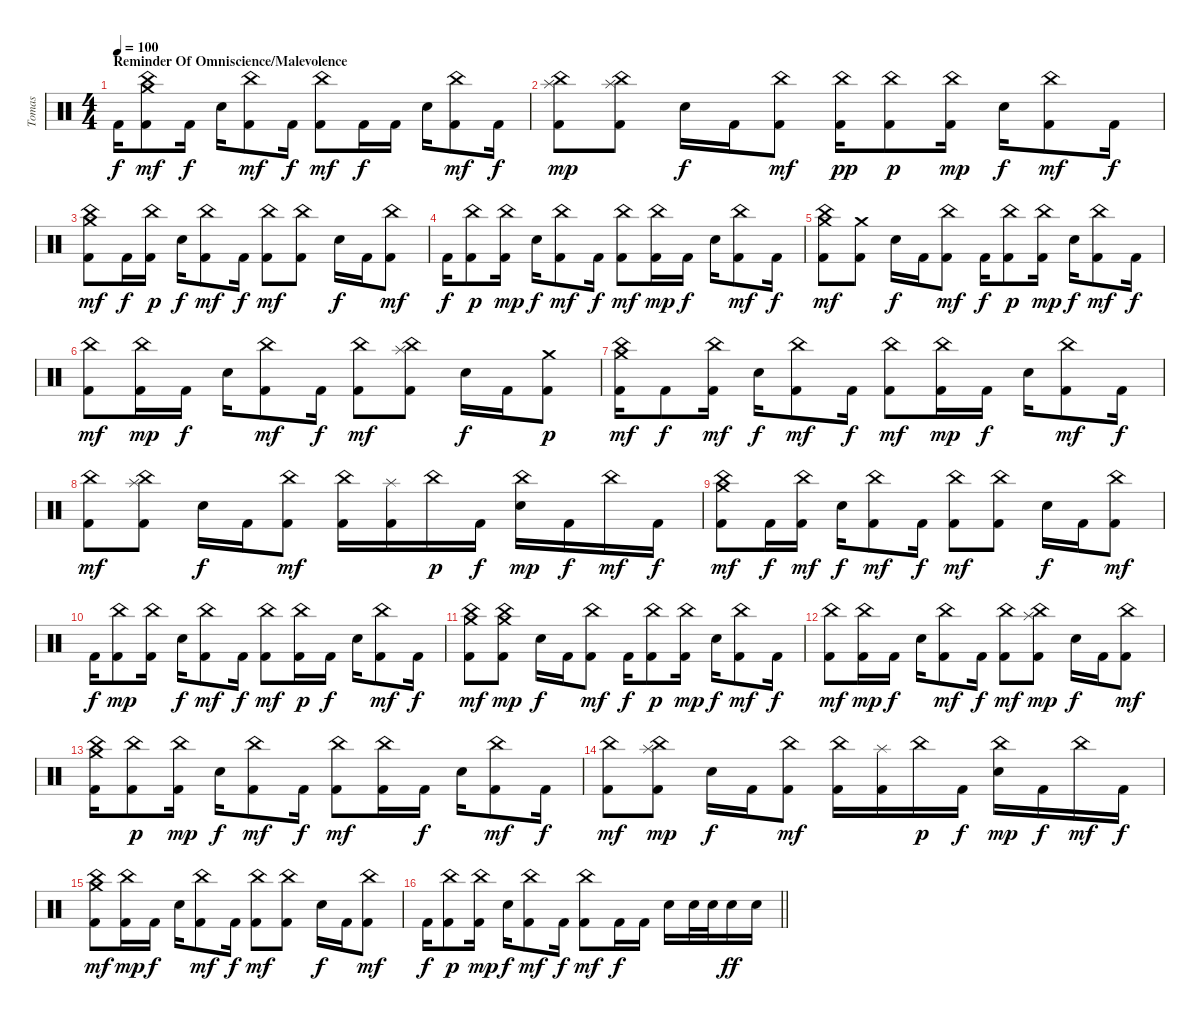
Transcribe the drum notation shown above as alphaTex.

\track ("Tomas" "Tomas") {instrument percussion}
\staff {score}
\articulation defaults
\ts (4 4)
\section ("" "Reminder Of Omniscience/Malevolence")
\tempo 100
\clef neutral
\ks c "Kick (hit) 2".16{dy f}
("China (hit)" "Crash medium (hit)" "Kick (hit) 2").8{dy mf} "Kick (hit) 2".16{dy f} "Electric Snare (hit)".16 ("China (hit)" "Kick (hit) 2").8{dy mf} "Kick (hit) 2".16{dy f} ("China (hit)" "Kick (hit) 2").8{dy mf} "Kick (hit) 2".16{dy f} "Kick (hit) 2".16 "Electric Snare (hit)".16 ("China (hit)" "Kick (hit) 2").8{dy mf} "Kick (hit) 2".16{dy f} |
("China (hit)" "Splash (hit)" "Kick (hit) 2").8{dy mp} ("China (hit)" "Splash (hit)" "Kick (hit) 2").8 "Electric Snare (hit)".16{dy f} "Kick (hit) 2".16 ("China (hit)" "Kick (hit) 2").8{dy mf} ("China (hit)" "Kick (hit) 2").16{dy pp} ("China (hit)" "Kick (hit) 2").8{dy p} ("China (hit)" "Kick (hit) 2").16{dy mp} "Electric Snare (hit)".16{dy f} ("China (hit)" "Kick (hit) 2").8{dy mf} "Kick (hit) 2".16{dy f} |
("China (hit)" "Crash medium (hit)" "Kick (hit) 2").8{dy mf} "Kick (hit) 2".16{dy f} ("China (hit)" "Kick (hit) 2").16{dy p} "Electric Snare (hit)".16{dy f} ("China (hit)" "Kick (hit) 2").8{dy mf} "Kick (hit) 2".16{dy f} ("China (hit)" "Kick (hit) 2").8{dy mf} ("China (hit)" "Kick (hit) 2").8 "Electric Snare (hit)".16{dy f} "Kick (hit) 2".16 ("China (hit)" "Kick (hit) 2").8{dy mf} |
"Kick (hit) 2".16{dy f} ("China (hit)" "Kick (hit) 2").8{dy p} ("China (hit)" "Kick (hit) 2").16{dy mp} "Electric Snare (hit)".16{dy f} ("China (hit)" "Kick (hit) 2").8{dy mf} "Kick (hit) 2".16{dy f} ("China (hit)" "Kick (hit) 2").8{dy mf} ("China (hit)" "Kick (hit) 2").16{dy mp} "Kick (hit) 2".16{dy f} "Electric Snare (hit)".16 ("China (hit)" "Kick (hit) 2").8{dy mf} "Kick (hit) 2".16{dy f} |
("China (hit)" "Crash medium (hit)" "Kick (hit) 2").8{dy mf} ("Crash medium (hit)" "Kick (hit) 2").8 "Electric Snare (hit)".16{dy f} "Kick (hit) 2".16 ("China (hit)" "Kick (hit) 2").8{dy mf} "Kick (hit) 2".16{dy f} ("China (hit)" "Kick (hit) 2").8{dy p} ("China (hit)" "Kick (hit) 2").16{dy mp} "Electric Snare (hit)".16{dy f} ("China (hit)" "Kick (hit) 2").8{dy mf} "Kick (hit) 2".16{dy f} |
("China (hit)" "Kick (hit) 2").8{dy mf} ("China (hit)" "Kick (hit) 2").16{dy mp} "Kick (hit) 2".16{dy f} "Electric Snare (hit)".16 ("China (hit)" "Kick (hit) 2").8{dy mf} "Kick (hit) 2".16{dy f} ("China (hit)" "Kick (hit) 2").8{dy mf} ("China (hit)" "Splash (hit)" "Kick (hit) 2").8 "Electric Snare (hit)".16{dy f} "Kick (hit) 2".16 ("Crash medium (hit)" "Kick (hit) 2").8{dy p} |
("China (hit)" "Crash medium (hit)" "Kick (hit) 2").16{dy mf} "Kick (hit) 2".8{dy f} ("China (hit)" "Kick (hit) 2").16{dy mf} "Electric Snare (hit)".16{dy f} ("China (hit)" "Kick (hit) 2").8{dy mf} "Kick (hit) 2".16{dy f} ("China (hit)" "Kick (hit) 2").8{dy mf} ("China (hit)" "Kick (hit) 2").16{dy mp} "Kick (hit) 2".16{dy f} "Electric Snare (hit)".16 ("China (hit)" "Kick (hit) 2").8{dy mf} "Kick (hit) 2".16{dy f} |
("China (hit)" "Kick (hit) 2").8{dy mf} ("China (hit)" "Splash (hit)" "Kick (hit) 2").8 "Electric Snare (hit)".16{dy f} "Kick (hit) 2".16 ("China (hit)" "Kick (hit) 2").8{dy mf} ("China (hit)" "Kick (hit) 2").16 ("Splash (hit)" "Kick (hit) 2").16 "China (hit)".16{dy p} "Kick (hit) 2".16{dy f} ("China (hit)" "Electric Snare (hit)").16{dy mp} "Kick (hit) 2".16{dy f} "China (hit)".16{dy mf} "Kick (hit) 2".16{dy f} |
("China (hit)" "Crash medium (hit)" "Kick (hit) 2").8{dy mf} "Kick (hit) 2".16{dy f} ("China (hit)" "Kick (hit) 2").16{dy mf} "Electric Snare (hit)".16{dy f} ("China (hit)" "Kick (hit) 2").8{dy mf} "Kick (hit) 2".16{dy f} ("China (hit)" "Kick (hit) 2").8{dy mf} ("China (hit)" "Kick (hit) 2").8 "Electric Snare (hit)".16{dy f} "Kick (hit) 2".16 ("China (hit)" "Kick (hit) 2").8{dy mf} |
"Kick (hit) 2".16{dy f} ("China (hit)" "Kick (hit) 2").8{dy mp} ("China (hit)" "Kick (hit) 2").16 "Electric Snare (hit)".16{dy f} ("China (hit)" "Kick (hit) 2").8{dy mf} "Kick (hit) 2".16{dy f} ("China (hit)" "Kick (hit) 2").8{dy mf} ("China (hit)" "Kick (hit) 2").16{dy p} "Kick (hit) 2".16{dy f} "Electric Snare (hit)".16 ("China (hit)" "Kick (hit) 2").8{dy mf} "Kick (hit) 2".16{dy f} |
("China (hit)" "Crash medium (hit)" "Kick (hit) 2").8{dy mf} ("China (hit)" "Crash medium (hit)" "Kick (hit) 2").8{dy mp} "Electric Snare (hit)".16{dy f} "Kick (hit) 2".16 ("China (hit)" "Kick (hit) 2").8{dy mf} "Kick (hit) 2".16{dy f} ("China (hit)" "Kick (hit) 2").8{dy p} ("China (hit)" "Kick (hit) 2").16{dy mp} "Electric Snare (hit)".16{dy f} ("China (hit)" "Kick (hit) 2").8{dy mf} "Kick (hit) 2".16{dy f} |
("China (hit)" "Kick (hit) 2").8{dy mf} ("China (hit)" "Kick (hit) 2").16{dy mp} "Kick (hit) 2".16{dy f} "Electric Snare (hit)".16 ("China (hit)" "Kick (hit) 2").8{dy mf} "Kick (hit) 2".16{dy f} ("China (hit)" "Kick (hit) 2").8{dy mf} ("China (hit)" "Splash (hit)" "Kick (hit) 2").8{dy mp} "Electric Snare (hit)".16{dy f} "Kick (hit) 2".16 ("China (hit)" "Kick (hit) 2").8{dy mf} |
("China (hit)" "Crash medium (hit)" "Kick (hit) 2").16 ("China (hit)" "Kick (hit) 2").8{dy p} ("China (hit)" "Kick (hit) 2").16{dy mp} "Electric Snare (hit)".16{dy f} ("China (hit)" "Kick (hit) 2").8{dy mf} "Kick (hit) 2".16{dy f} ("China (hit)" "Kick (hit) 2").8{dy mf} ("China (hit)" "Kick (hit) 2").16 "Kick (hit) 2".16{dy f} "Electric Snare (hit)".16 ("China (hit)" "Kick (hit) 2").8{dy mf} "Kick (hit) 2".16{dy f} |
("China (hit)" "Kick (hit) 2").8{dy mf} ("China (hit)" "Splash (hit)" "Kick (hit) 2").8{dy mp} "Electric Snare (hit)".16{dy f} "Kick (hit) 2".16 ("China (hit)" "Kick (hit) 2").8{dy mf} ("China (hit)" "Kick (hit) 2").16 ("Splash (hit)" "Kick (hit) 2").16 "China (hit)".16{dy p} "Kick (hit) 2".16{dy f} ("China (hit)" "Electric Snare (hit)").16{dy mp} "Kick (hit) 2".16{dy f} "China (hit)".16{dy mf} "Kick (hit) 2".16{dy f} |
("China (hit)" "Crash medium (hit)" "Kick (hit) 2").8{dy mf} ("China (hit)" "Kick (hit) 2").16{dy mp} "Kick (hit) 2".16{dy f} "Electric Snare (hit)".16 ("China (hit)" "Kick (hit) 2").8{dy mf} "Kick (hit) 2".16{dy f} ("China (hit)" "Kick (hit) 2").8{dy mf} ("China (hit)" "Kick (hit) 2").8 "Electric Snare (hit)".16{dy f} "Kick (hit) 2".16 ("China (hit)" "Kick (hit) 2").8{dy mf} |
\barLineRight lightlight "Kick (hit) 2".16{dy f}
("China (hit)" "Kick (hit) 2").8{dy p} ("China (hit)" "Kick (hit) 2").16{dy mp} "Electric Snare (hit)".16{dy f} ("China (hit)" "Kick (hit) 2").8{dy mf} "Kick (hit) 2".16{dy f} ("China (hit)" "Kick (hit) 2").8{dy mf} "Kick (hit) 2".16{dy f} "Kick (hit) 2".16 "Electric Snare (hit)".16 "Electric Snare (hit)".32 "Electric Snare (hit)".32 "Electric Snare (hit)".16{dy ff} "Electric Snare (hit)".16
